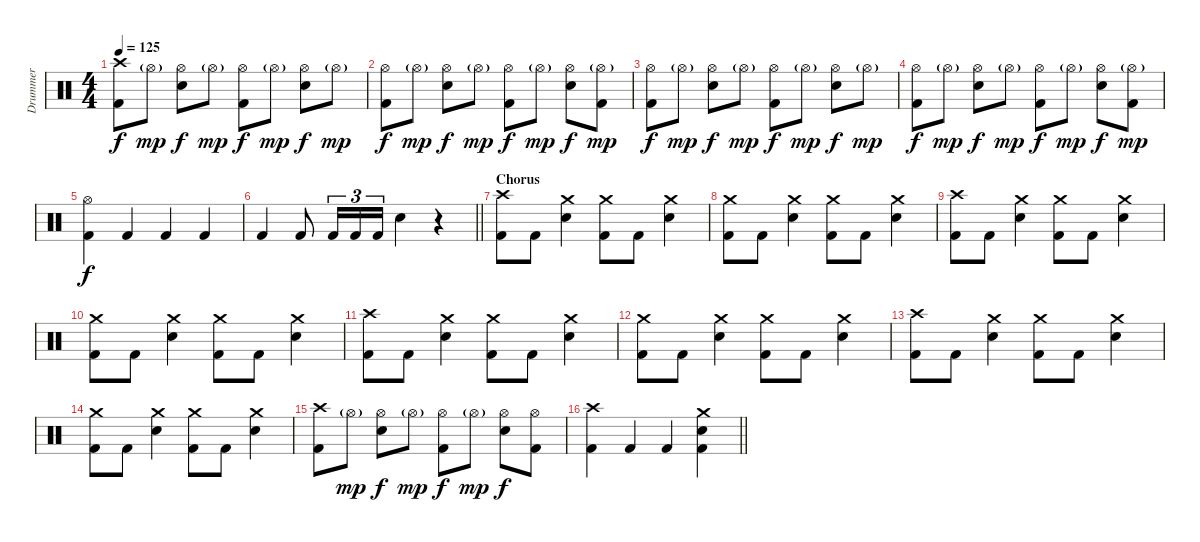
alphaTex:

\track ("Drummer" "Drummer") {instrument percussion}
\staff {score}
\articulation defaults
\ts (4 4)
\tempo 125
\clef neutral
\ks c
("Crash high (hit)" "Kick (hit) 2").8{dy f} "Hi-Hat (open)"{g}.8{dy mp} ("Hi-Hat (open)" "Electric Snare (hit)").8{dy f} "Hi-Hat (open)"{g}.8{dy mp} ("Hi-Hat (open)" "Kick (hit) 2").8{dy f} "Hi-Hat (open)"{g}.8{dy mp} ("Hi-Hat (open)" "Electric Snare (hit)").8{dy f} "Hi-Hat (open)"{g}.8{dy mp} |
("Hi-Hat (open)" "Kick (hit) 2").8{dy f} "Hi-Hat (open)"{g}.8{dy mp} ("Hi-Hat (open)" "Electric Snare (hit)").8{dy f} "Hi-Hat (open)"{g}.8{dy mp} ("Hi-Hat (open)" "Kick (hit) 2").8{dy f} "Hi-Hat (open)"{g}.8{dy mp} ("Hi-Hat (open)" "Electric Snare (hit)").8{dy f} ("Hi-Hat (open)"{g} "Kick (hit) 2").8{dy mp} |
("Hi-Hat (open)" "Kick (hit) 2").8{dy f} "Hi-Hat (open)"{g}.8{dy mp} ("Hi-Hat (open)" "Electric Snare (hit)").8{dy f} "Hi-Hat (open)"{g}.8{dy mp} ("Hi-Hat (open)" "Kick (hit) 2").8{dy f} "Hi-Hat (open)"{g}.8{dy mp} ("Hi-Hat (open)" "Electric Snare (hit)").8{dy f} "Hi-Hat (open)"{g}.8{dy mp} |
("Hi-Hat (open)" "Kick (hit) 2").8{dy f} "Hi-Hat (open)"{g}.8{dy mp} ("Hi-Hat (open)" "Electric Snare (hit)").8{dy f} "Hi-Hat (open)"{g}.8{dy mp} ("Hi-Hat (open)" "Kick (hit) 2").8{dy f} "Hi-Hat (open)"{g}.8{dy mp} ("Hi-Hat (open)" "Electric Snare (hit)").8{dy f} ("Hi-Hat (open)"{g} "Kick (hit) 2").8{dy mp} |
("Hi-Hat (open)" "Kick (hit) 2").4{dy f} "Kick (hit) 2".4 "Kick (hit) 2".4 "Kick (hit) 2".4 |
\barLineRight lightlight "Kick (hit) 2".4 "Kick (hit) 2".8 "Kick (hit) 2".16{tu (3 2)} "Kick (hit) 2".16{tu (3 2)} "Kick (hit) 2".16{tu (3 2)} "Electric Snare (hit)".4
r.4 |
\section ("" "Chorus")
("Crash high (hit)" "Kick (hit) 2").8 "Kick (hit) 2".8 ("Crash medium (hit)" "Electric Snare (hit)").4 ("Crash medium (hit)" "Kick (hit) 2").8 "Kick (hit) 2".8 ("Crash medium (hit)" "Electric Snare (hit)").4 |
("Crash medium (hit)" "Kick (hit) 2").8 "Kick (hit) 2".8 ("Crash medium (hit)" "Electric Snare (hit)").4 ("Crash medium (hit)" "Kick (hit) 2").8 "Kick (hit) 2".8 ("Crash medium (hit)" "Electric Snare (hit)").4 |
("Crash high (hit)" "Kick (hit) 2").8 "Kick (hit) 2".8 ("Crash medium (hit)" "Electric Snare (hit)").4 ("Crash medium (hit)" "Kick (hit) 2").8 "Kick (hit) 2".8 ("Crash medium (hit)" "Electric Snare (hit)").4 |
("Crash medium (hit)" "Kick (hit) 2").8 "Kick (hit) 2".8 ("Crash medium (hit)" "Electric Snare (hit)").4 ("Crash medium (hit)" "Kick (hit) 2").8 "Kick (hit) 2".8 ("Crash medium (hit)" "Electric Snare (hit)").4 |
("Crash high (hit)" "Kick (hit) 2").8 "Kick (hit) 2".8 ("Crash medium (hit)" "Electric Snare (hit)").4 ("Crash medium (hit)" "Kick (hit) 2").8 "Kick (hit) 2".8 ("Crash medium (hit)" "Electric Snare (hit)").4 |
("Crash medium (hit)" "Kick (hit) 2").8 "Kick (hit) 2".8 ("Crash medium (hit)" "Electric Snare (hit)").4 ("Crash medium (hit)" "Kick (hit) 2").8 "Kick (hit) 2".8 ("Crash medium (hit)" "Electric Snare (hit)").4 |
("Crash high (hit)" "Kick (hit) 2").8 "Kick (hit) 2".8 ("Crash medium (hit)" "Electric Snare (hit)").4 ("Crash medium (hit)" "Kick (hit) 2").8 "Kick (hit) 2".8 ("Crash medium (hit)" "Electric Snare (hit)").4 |
("Crash medium (hit)" "Kick (hit) 2").8 "Kick (hit) 2".8 ("Crash medium (hit)" "Electric Snare (hit)").4 ("Crash medium (hit)" "Kick (hit) 2").8 "Kick (hit) 2".8 ("Crash medium (hit)" "Electric Snare (hit)").4 |
("Crash high (hit)" "Kick (hit) 2").8 "Hi-Hat (open)"{g}.8{dy mp} ("Hi-Hat (open)" "Electric Snare (hit)").8{dy f} "Hi-Hat (open)"{g}.8{dy mp} ("Hi-Hat (open)" "Kick (hit) 2").8{dy f} "Hi-Hat (open)"{g}.8{dy mp} ("Hi-Hat (open)" "Electric Snare (hit)").8{dy f} ("Hi-Hat (open)" "Kick (hit) 2").8 |
\barLineRight lightlight
("Crash high (hit)" "Kick (hit) 2").4 "Kick (hit) 2".4 "Kick (hit) 2".4 ("Crash medium (hit)" "Electric Snare (hit)" "Kick (hit) 2").4
